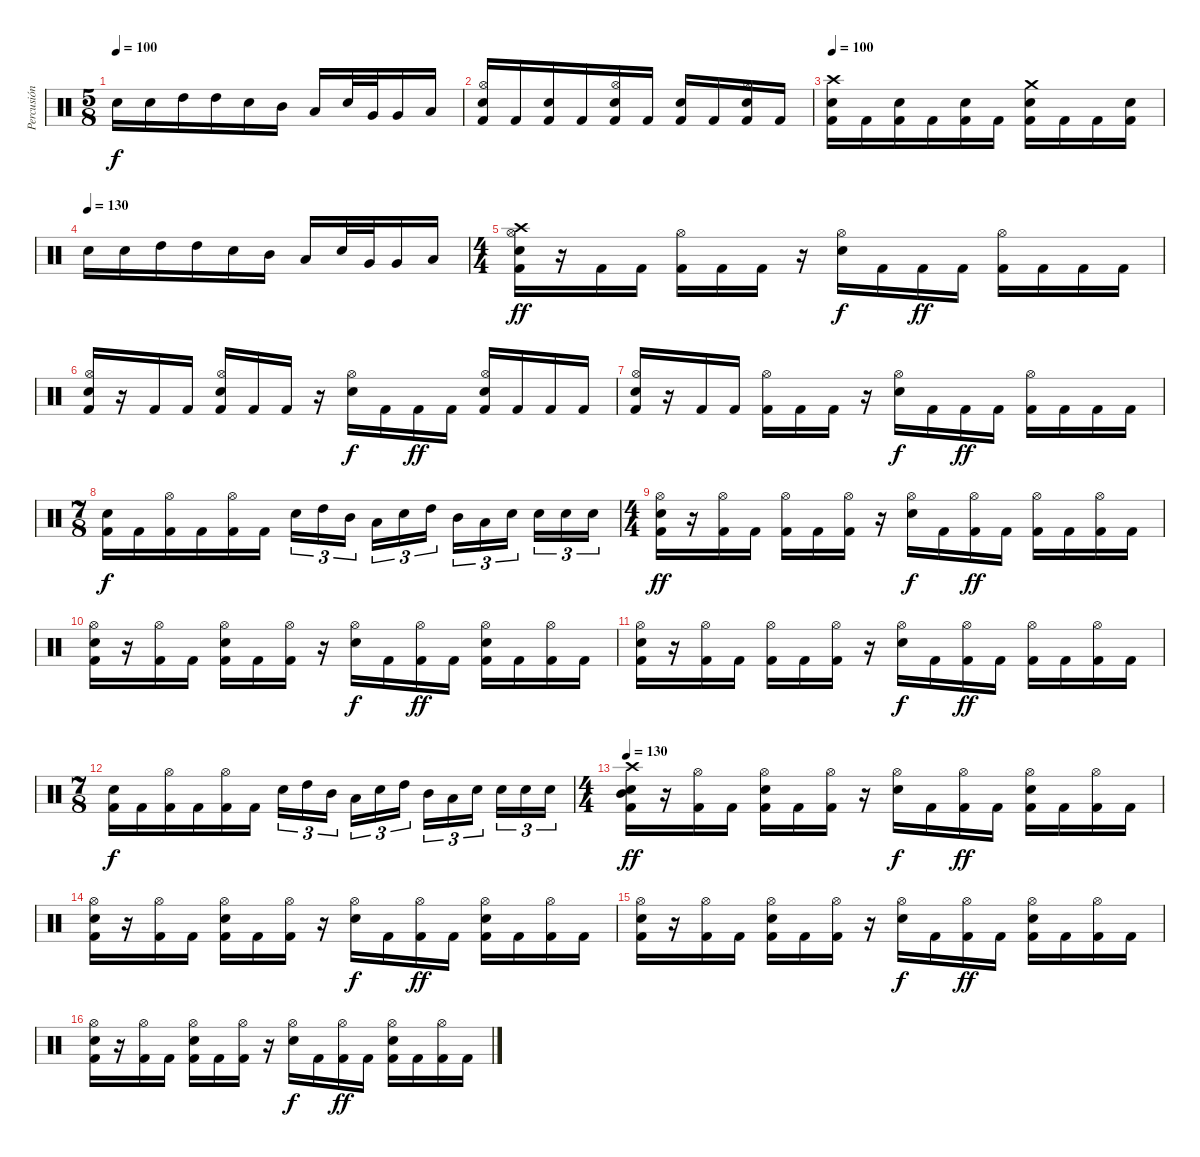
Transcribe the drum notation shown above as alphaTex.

\track ("Percusión" "Percusión") {instrument percussion}
\staff {score}
\articulation defaults
\ts (5 8)
\tempo 100
\clef neutral
\ks c "Electric Snare (hit)".16{dy f} "Electric Snare (hit)".16 "High Tom (hit)".16 "High Tom (hit)".16 "Electric Snare (hit)".16 "Mid Tom (hit)".16 "Low Tom (hit)".16 "Electric Snare (hit)".32 "Very Low Tom (hit)".32 "Very Low Tom (hit)".16 "Low Floor Tom (hit)".16
|
("Hi-Hat (open)" "Electric Snare (hit)" "Kick (hit) 2").16 "Kick (hit) 2".16 ("Electric Snare (hit)" "Kick (hit) 2").16 "Kick (hit) 2".16 ("Hi-Hat (open)" "Electric Snare (hit)" "Kick (hit) 2").16 "Kick (hit) 2".16 ("Electric Snare (hit)" "Kick (hit) 2").16 "Kick (hit) 2".16 ("Hi-Hat (open)" "Electric Snare (hit)" "Kick (hit) 2").16 "Kick (hit) 2".16 |
\tempo 100
("Crash high (hit)" "Electric Snare (hit)" "Kick (hit) 2").16 "Kick (hit) 2".16 ("Electric Snare (hit)" "Kick (hit) 2").16 "Kick (hit) 2".16 ("Electric Snare (hit)" "Kick (hit) 2").16 "Kick (hit) 2".16 ("Crash medium (hit)" "Electric Snare (hit)" "Kick (hit) 2").16 "Kick (hit) 2".16 "Kick (hit) 2".16 ("Electric Snare (hit)" "Kick (hit) 2").16 |
\tempo (130)
"Electric Snare (hit)".16 "Electric Snare (hit)".16 "High Tom (hit)".16 "High Tom (hit)".16 "Electric Snare (hit)".16 "Mid Tom (hit)".16 "Low Tom (hit)".16 "Electric Snare (hit)".32 "Very Low Tom (hit)".32 "Very Low Tom (hit)".16 "Low Floor Tom (hit)".16 |
\ts (4 4)
("Crash high (hit)" "Hi-Hat (open)" "Electric Snare (hit)" "Kick (hit) 2").16{dy ff} r.16 "Kick (hit) 2".16 "Kick (hit) 2".16 ("Hi-Hat (open)" "Kick (hit) 2").16 "Kick (hit) 2".16 "Kick (hit) 2".16 r.16 ("Hi-Hat (open)" "Electric Snare (hit)").16{dy f} "Kick (hit) 2".16 "Kick (hit) 2".16{dy ff} "Kick (hit) 2".16 ("Hi-Hat (open)" "Kick (hit) 2").16 "Kick (hit) 2".16 "Kick (hit) 2".16 "Kick (hit) 2".16 |
("Hi-Hat (open)" "Electric Snare (hit)" "Kick (hit) 2").16 r.16 "Kick (hit) 2".16 "Kick (hit) 2".16 ("Hi-Hat (open)" "Electric Snare (hit)" "Kick (hit) 2").16 "Kick (hit) 2".16 "Kick (hit) 2".16 r.16 ("Hi-Hat (open)" "Electric Snare (hit)").16{dy f} "Kick (hit) 2".16 "Kick (hit) 2".16{dy ff} "Kick (hit) 2".16 ("Hi-Hat (open)" "Electric Snare (hit)" "Kick (hit) 2").16 "Kick (hit) 2".16 "Kick (hit) 2".16 "Kick (hit) 2".16 |
("Hi-Hat (open)" "Electric Snare (hit)" "Kick (hit) 2").16 r.16 "Kick (hit) 2".16 "Kick (hit) 2".16 ("Hi-Hat (open)" "Kick (hit) 2").16 "Kick (hit) 2".16 "Kick (hit) 2".16 r.16 ("Hi-Hat (open)" "Electric Snare (hit)").16{dy f} "Kick (hit) 2".16 "Kick (hit) 2".16{dy ff} "Kick (hit) 2".16 ("Hi-Hat (open)" "Kick (hit) 2").16 "Kick (hit) 2".16 "Kick (hit) 2".16 "Kick (hit) 2".16 |
\ts (7 8)
("Electric Snare (hit)" "Kick (hit) 2").16{dy f} "Kick (hit) 2".16 ("Hi-Hat (open)" "Kick (hit) 2").16 "Kick (hit) 2".16 ("Hi-Hat (open)" "Kick (hit) 2").16 "Kick (hit) 2".16 "Electric Snare (hit)".16{tu (3 2)} "High Tom (hit)".16{tu (3 2)} "Mid Tom (hit)".16{tu (3 2)} "Low Tom (hit)".16{tu (3 2)} "Electric Snare (hit)".16{tu (3 2)} "High Tom (hit)".16{tu (3 2)} "Mid Tom (hit)".16{tu (3 2)} "Low Tom (hit)".16{tu (3 2)} "Electric Snare (hit)".16{tu (3 2)} "Electric Snare (hit)".16{tu (3 2)} "Electric Snare (hit)".16{tu (3 2)} "Electric Snare (hit)".16{tu (3 2)} |
\ts (4 4)
("Hi-Hat (open)" "Electric Snare (hit)" "Kick (hit) 2").16{dy ff} r.16 ("Hi-Hat (open)" "Kick (hit) 2").16 "Kick (hit) 2".16 ("Hi-Hat (open)" "Kick (hit) 2").16 "Kick (hit) 2".16 ("Hi-Hat (open)" "Kick (hit) 2").16 r.16 ("Hi-Hat (open)" "Electric Snare (hit)").16{dy f} "Kick (hit) 2".16 ("Hi-Hat (open)" "Kick (hit) 2").16{dy ff} "Kick (hit) 2".16 ("Hi-Hat (open)" "Kick (hit) 2").16 "Kick (hit) 2".16 ("Hi-Hat (open)" "Kick (hit) 2").16 "Kick (hit) 2".16 |
("Hi-Hat (open)" "Electric Snare (hit)" "Kick (hit) 2").16 r.16 ("Hi-Hat (open)" "Kick (hit) 2").16 "Kick (hit) 2".16 ("Hi-Hat (open)" "Electric Snare (hit)" "Kick (hit) 2").16 "Kick (hit) 2".16 ("Hi-Hat (open)" "Kick (hit) 2").16 r.16 ("Hi-Hat (open)" "Electric Snare (hit)").16{dy f} "Kick (hit) 2".16 ("Hi-Hat (open)" "Kick (hit) 2").16{dy ff} "Kick (hit) 2".16 ("Hi-Hat (open)" "Electric Snare (hit)" "Kick (hit) 2").16 "Kick (hit) 2".16 ("Hi-Hat (open)" "Kick (hit) 2").16 "Kick (hit) 2".16 |
("Hi-Hat (open)" "Electric Snare (hit)" "Kick (hit) 2").16 r.16 ("Hi-Hat (open)" "Kick (hit) 2").16 "Kick (hit) 2".16 ("Hi-Hat (open)" "Kick (hit) 2").16 "Kick (hit) 2".16 ("Hi-Hat (open)" "Kick (hit) 2").16 r.16 ("Hi-Hat (open)" "Electric Snare (hit)").16{dy f} "Kick (hit) 2".16 ("Hi-Hat (open)" "Kick (hit) 2").16{dy ff} "Kick (hit) 2".16 ("Hi-Hat (open)" "Kick (hit) 2").16 "Kick (hit) 2".16 ("Hi-Hat (open)" "Kick (hit) 2").16 "Kick (hit) 2".16 |
\ts (7 8)
("Electric Snare (hit)" "Kick (hit) 2").16{dy f} "Kick (hit) 2".16 ("Hi-Hat (open)" "Kick (hit) 2").16 "Kick (hit) 2".16 ("Hi-Hat (open)" "Kick (hit) 2").16 "Kick (hit) 2".16 "Electric Snare (hit)".16{tu (3 2)} "High Tom (hit)".16{tu (3 2)} "Mid Tom (hit)".16{tu (3 2)} "Low Tom (hit)".16{tu (3 2)} "Electric Snare (hit)".16{tu (3 2)} "High Tom (hit)".16{tu (3 2)} "Mid Tom (hit)".16{tu (3 2)} "Low Tom (hit)".16{tu (3 2)} "Electric Snare (hit)".16{tu (3 2)} "Electric Snare (hit)".16{tu (3 2)} "Electric Snare (hit)".16{tu (3 2)} "Electric Snare (hit)".16{tu (3 2)} |
\ts (4 4)
\tempo 130
("Crash high (hit)" "Mid Tom (hit)" "Electric Snare (hit)" "Kick (hit) 2").16{dy ff} r.16 ("Hi-Hat (open)" "Kick (hit) 2").16 "Kick (hit) 2".16 ("Hi-Hat (open)" "Electric Snare (hit)" "Kick (hit) 2").16 "Kick (hit) 2".16 ("Hi-Hat (open)" "Kick (hit) 2").16 r.16 ("Hi-Hat (open)" "Electric Snare (hit)").16{dy f} "Kick (hit) 2".16 ("Hi-Hat (open)" "Kick (hit) 2").16{dy ff} "Kick (hit) 2".16 ("Hi-Hat (open)" "Electric Snare (hit)" "Kick (hit) 2").16 "Kick (hit) 2".16 ("Hi-Hat (open)" "Kick (hit) 2").16 "Kick (hit) 2".16 |
("Hi-Hat (open)" "Electric Snare (hit)" "Kick (hit) 2").16 r.16 ("Hi-Hat (open)" "Kick (hit) 2").16 "Kick (hit) 2".16 ("Hi-Hat (open)" "Electric Snare (hit)" "Kick (hit) 2").16 "Kick (hit) 2".16 ("Hi-Hat (open)" "Kick (hit) 2").16 r.16 ("Hi-Hat (open)" "Electric Snare (hit)").16{dy f} "Kick (hit) 2".16 ("Hi-Hat (open)" "Kick (hit) 2").16{dy ff} "Kick (hit) 2".16 ("Hi-Hat (open)" "Electric Snare (hit)" "Kick (hit) 2").16 "Kick (hit) 2".16 ("Hi-Hat (open)" "Kick (hit) 2").16 "Kick (hit) 2".16 |
("Hi-Hat (open)" "Electric Snare (hit)" "Kick (hit) 2").16 r.16 ("Hi-Hat (open)" "Kick (hit) 2").16 "Kick (hit) 2".16 ("Hi-Hat (open)" "Electric Snare (hit)" "Kick (hit) 2").16 "Kick (hit) 2".16 ("Hi-Hat (open)" "Kick (hit) 2").16 r.16 ("Hi-Hat (open)" "Electric Snare (hit)").16{dy f} "Kick (hit) 2".16 ("Hi-Hat (open)" "Kick (hit) 2").16{dy ff} "Kick (hit) 2".16 ("Hi-Hat (open)" "Electric Snare (hit)" "Kick (hit) 2").16 "Kick (hit) 2".16 ("Hi-Hat (open)" "Kick (hit) 2").16 "Kick (hit) 2".16 |
("Hi-Hat (open)" "Electric Snare (hit)" "Kick (hit) 2").16 r.16 ("Hi-Hat (open)" "Kick (hit) 2").16 "Kick (hit) 2".16 ("Hi-Hat (open)" "Electric Snare (hit)" "Kick (hit) 2").16 "Kick (hit) 2".16 ("Hi-Hat (open)" "Kick (hit) 2").16 r.16 ("Hi-Hat (open)" "Electric Snare (hit)").16{dy f} "Kick (hit) 2".16 ("Hi-Hat (open)" "Kick (hit) 2").16{dy ff} "Kick (hit) 2".16 ("Hi-Hat (open)" "Electric Snare (hit)" "Kick (hit) 2").16 "Kick (hit) 2".16 ("Hi-Hat (open)" "Kick (hit) 2").16 "Kick (hit) 2".16
